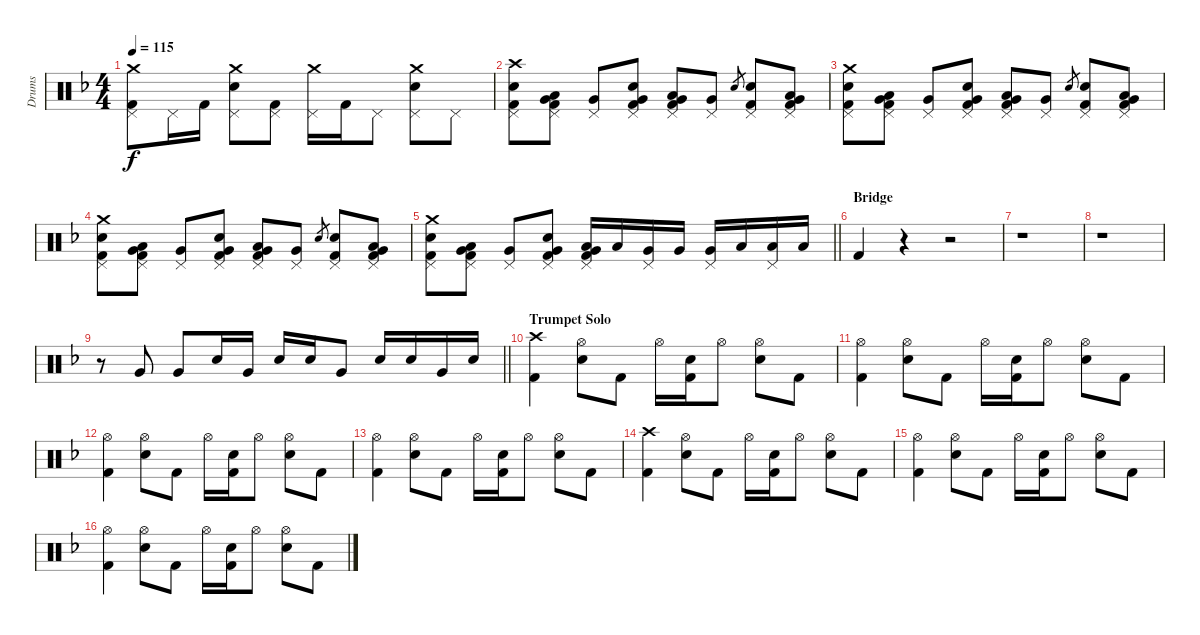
\track ("Drums" "Drums") {instrument percussion}
\staff {score}
\articulation defaults
\ts (4 4)
\tempo 115
\clef neutral
\ks dminor
("Crash medium (hit)" "Pedal Hi-Hat (hit)" "Kick (hit) 2").8{dy f} "Pedal Hi-Hat (hit)".16 "Kick (hit) 2".16 ("Crash medium (hit)" "Electric Snare (hit)" "Pedal Hi-Hat (hit)").8 ("Pedal Hi-Hat (hit)" "Kick (hit) 2").8 ("Crash medium (hit)" "Pedal Hi-Hat (hit)").16 "Kick (hit) 2".16 "Pedal Hi-Hat (hit)".8 ("Crash medium (hit)" "Electric Snare (hit)" "Pedal Hi-Hat (hit)").8 "Pedal Hi-Hat (hit)".8 |
("Crash high (hit)" "Electric Snare (hit)" "Pedal Hi-Hat (hit)" "Kick (hit) 2").8 ("Low Tom (hit)" "Very Low Tom (hit)" "Pedal Hi-Hat (hit)" "Kick (hit) 2").8 ("Very Low Tom (hit)" "Pedal Hi-Hat (hit)").8 ("Electric Snare (hit)" "Very Low Tom (hit)" "Pedal Hi-Hat (hit)" "Kick (hit) 2").8 ("Low Tom (hit)" "Very Low Tom (hit)" "Pedal Hi-Hat (hit)" "Kick (hit) 2").8 ("Very Low Tom (hit)" "Pedal Hi-Hat (hit)").8 "Electric Snare (hit)".8{gr} ("Electric Snare (hit)" "Pedal Hi-Hat (hit)" "Kick (hit) 2").8 ("Low Tom (hit)" "Very Low Tom (hit)" "Pedal Hi-Hat (hit)" "Kick (hit) 2").8 |
("Crash medium (hit)" "Electric Snare (hit)" "Pedal Hi-Hat (hit)" "Kick (hit) 2").8 ("Low Tom (hit)" "Very Low Tom (hit)" "Pedal Hi-Hat (hit)" "Kick (hit) 2").8 ("Very Low Tom (hit)" "Pedal Hi-Hat (hit)").8 ("Electric Snare (hit)" "Very Low Tom (hit)" "Pedal Hi-Hat (hit)" "Kick (hit) 2").8 ("Low Tom (hit)" "Very Low Tom (hit)" "Pedal Hi-Hat (hit)" "Kick (hit) 2").8 ("Very Low Tom (hit)" "Pedal Hi-Hat (hit)").8 "Electric Snare (hit)".8{gr} ("Electric Snare (hit)" "Pedal Hi-Hat (hit)" "Kick (hit) 2").8 ("Low Tom (hit)" "Very Low Tom (hit)" "Pedal Hi-Hat (hit)" "Kick (hit) 2").8 |
("Crash medium (hit)" "Electric Snare (hit)" "Pedal Hi-Hat (hit)" "Kick (hit) 2").8 ("Low Tom (hit)" "Very Low Tom (hit)" "Pedal Hi-Hat (hit)" "Kick (hit) 2").8 ("Very Low Tom (hit)" "Pedal Hi-Hat (hit)").8 ("Electric Snare (hit)" "Very Low Tom (hit)" "Pedal Hi-Hat (hit)" "Kick (hit) 2").8 ("Low Tom (hit)" "Very Low Tom (hit)" "Pedal Hi-Hat (hit)" "Kick (hit) 2").8 ("Very Low Tom (hit)" "Pedal Hi-Hat (hit)").8 "Electric Snare (hit)".8{gr} ("Electric Snare (hit)" "Pedal Hi-Hat (hit)" "Kick (hit) 2").8 ("Low Tom (hit)" "Very Low Tom (hit)" "Pedal Hi-Hat (hit)" "Kick (hit) 2").8 |
\barLineRight lightlight
("Crash medium (hit)" "Electric Snare (hit)" "Pedal Hi-Hat (hit)" "Kick (hit) 2").8 ("Low Tom (hit)" "Very Low Tom (hit)" "Pedal Hi-Hat (hit)" "Kick (hit) 2").8 ("Very Low Tom (hit)" "Pedal Hi-Hat (hit)").8 ("Electric Snare (hit)" "Very Low Tom (hit)" "Pedal Hi-Hat (hit)" "Kick (hit) 2").8 ("Low Tom (hit)" "Very Low Tom (hit)" "Pedal Hi-Hat (hit)" "Kick (hit) 2").16 "Low Tom (hit)".16 ("Very Low Tom (hit)" "Pedal Hi-Hat (hit)").16 "Very Low Tom (hit)".16 ("Very Low Tom (hit)" "Pedal Hi-Hat (hit)").16 "Low Floor Tom (hit)".16 ("Pedal Hi-Hat (hit)" "Low Floor Tom (hit)").16 "Low Floor Tom (hit)".16 |
\section ("" "Bridge")
"Kick (hit) 2".4 r.4 r.2 |
r.1 |
r.1 |
\barLineRight lightlight
r.8 "Very Low Tom (hit)".8 "Very Low Tom (hit)".8 "Electric Snare (hit)".16 "Very Low Tom (hit)".16 "Electric Snare (hit)".16 "Electric Snare (hit)".16 "Very Low Tom (hit)".8 "Electric Snare (hit)".16 "Electric Snare (hit)".16 "Very Low Tom (hit)".16 "Electric Snare (hit)".16 |
\section ("" "Trumpet Solo")
("Crash high (hit)" "Kick (hit) 2").4 ("Hi-Hat (open)" "Electric Snare (hit)").8 "Kick (hit) 2".8 "Hi-Hat (open)".16 ("Electric Snare (hit)" "Kick (hit) 2").16 "Hi-Hat (open)".8 ("Hi-Hat (open)" "Electric Snare (hit)").8 "Kick (hit) 2".8 |
("Hi-Hat (open)" "Kick (hit) 2").4 ("Hi-Hat (open)" "Electric Snare (hit)").8 "Kick (hit) 2".8 "Hi-Hat (open)".16 ("Electric Snare (hit)" "Kick (hit) 2").16 "Hi-Hat (open)".8 ("Hi-Hat (open)" "Electric Snare (hit)").8 "Kick (hit) 2".8 |
("Hi-Hat (open)" "Kick (hit) 2").4 ("Hi-Hat (open)" "Electric Snare (hit)").8 "Kick (hit) 2".8 "Hi-Hat (open)".16 ("Electric Snare (hit)" "Kick (hit) 2").16 "Hi-Hat (open)".8 ("Hi-Hat (open)" "Electric Snare (hit)").8 "Kick (hit) 2".8 |
("Hi-Hat (open)" "Kick (hit) 2").4 ("Hi-Hat (open)" "Electric Snare (hit)").8 "Kick (hit) 2".8 "Hi-Hat (open)".16 ("Electric Snare (hit)" "Kick (hit) 2").16 "Hi-Hat (open)".8 ("Hi-Hat (open)" "Electric Snare (hit)").8 "Kick (hit) 2".8 |
("Crash high (hit)" "Kick (hit) 2").4 ("Hi-Hat (open)" "Electric Snare (hit)").8 "Kick (hit) 2".8 "Hi-Hat (open)".16 ("Electric Snare (hit)" "Kick (hit) 2").16 "Hi-Hat (open)".8 ("Hi-Hat (open)" "Electric Snare (hit)").8 "Kick (hit) 2".8 |
("Hi-Hat (open)" "Kick (hit) 2").4 ("Hi-Hat (open)" "Electric Snare (hit)").8 "Kick (hit) 2".8 "Hi-Hat (open)".16 ("Electric Snare (hit)" "Kick (hit) 2").16 "Hi-Hat (open)".8 ("Hi-Hat (open)" "Electric Snare (hit)").8 "Kick (hit) 2".8 |
("Hi-Hat (open)" "Kick (hit) 2").4 ("Hi-Hat (open)" "Electric Snare (hit)").8 "Kick (hit) 2".8 "Hi-Hat (open)".16 ("Electric Snare (hit)" "Kick (hit) 2").16 "Hi-Hat (open)".8 ("Hi-Hat (open)" "Electric Snare (hit)").8 "Kick (hit) 2".8
